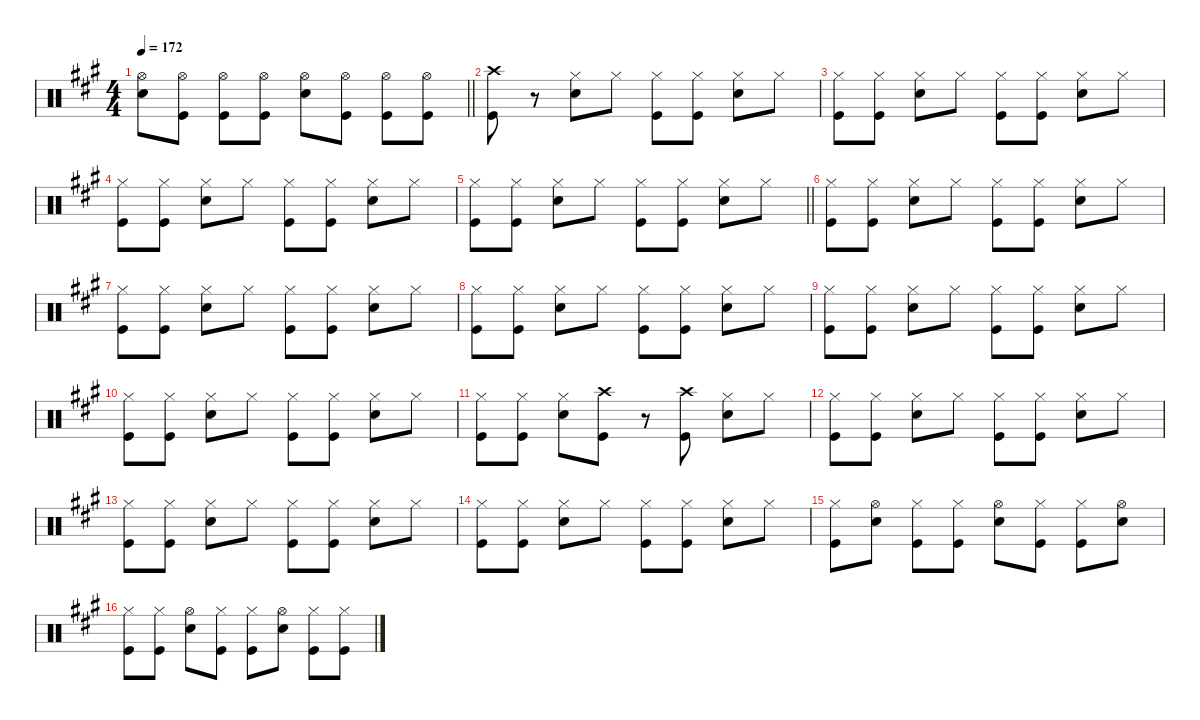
\defaultSystemsLayout 4
\hideDynamics
\bracketExtendMode nobrackets
\singleTrackTrackNamePolicy hidden
\multiTrackTrackNamePolicy hidden
\firstSystemTrackNameMode fullname
\firstSystemTrackNameOrientation horizontal
\otherSystemsTrackNameOrientation horizontal
\track ("Percussion" "drm.") {instrument percussion}
\staff {score}
\articulation defaults
\ts (4 4)
\tempo 172
\clef neutral
\barLineRight lightlight
\ks a
("Hi-Hat (open)"{acc forcenatural} "Snare (hit) 2"{acc forcenatural}).8{dy f beam Down} ("Hi-Hat (open)"{acc forcenatural} "Kick (hit)"{acc forcenatural}).8{beam Down} ("Hi-Hat (open)"{acc forcenatural} "Kick (hit)"{acc forcenatural}).8{beam Down} ("Hi-Hat (open)"{acc forcenatural} "Kick (hit)"{acc forcenatural}).8{beam Down} ("Hi-Hat (open)"{acc forcenatural} "Snare (hit) 2"{acc forcenatural}).8{beam Down} ("Hi-Hat (open)"{acc forcenatural} "Kick (hit)"{acc forcenatural}).8{beam Down} ("Hi-Hat (open)"{acc forcenatural} "Kick (hit)"{acc forcenatural}).8{beam Down} ("Hi-Hat (open)"{acc forcenatural} "Kick (hit)"{acc forcenatural}).8{beam Down} |
("Crash high (hit)"{acc forcenatural} "Kick (hit)"{acc forcenatural}).8{beam Down} r.8{beam Down} ("Hi-Hat (closed)"{acc forcenatural} "Snare (hit) 2"{acc forcenatural}).8{beam Down} "Hi-Hat (closed)"{acc forcenatural}.8{beam Down} ("Hi-Hat (closed)"{acc forcenatural} "Kick (hit)"{acc forcenatural}).8{beam Down} ("Hi-Hat (closed)"{acc forcenatural} "Kick (hit)"{acc forcenatural}).8{beam Down} ("Hi-Hat (closed)"{acc forcenatural} "Snare (hit) 2"{acc forcenatural}).8{beam Down} "Hi-Hat (closed)"{acc forcenatural}.8{beam Down} |
("Hi-Hat (closed)"{acc forcenatural} "Kick (hit)"{acc forcenatural}).8{beam Down} ("Hi-Hat (closed)"{acc forcenatural} "Kick (hit)"{acc forcenatural}).8{beam Down} ("Hi-Hat (closed)"{acc forcenatural} "Snare (hit) 2"{acc forcenatural}).8{beam Down} "Hi-Hat (closed)"{acc forcenatural}.8{beam Down} ("Hi-Hat (closed)"{acc forcenatural} "Kick (hit)"{acc forcenatural}).8{beam Down} ("Hi-Hat (closed)"{acc forcenatural} "Kick (hit)"{acc forcenatural}).8{beam Down} ("Hi-Hat (closed)"{acc forcenatural} "Snare (hit) 2"{acc forcenatural}).8{beam Down} "Hi-Hat (closed)"{acc forcenatural}.8{beam Down} |
("Hi-Hat (closed)"{acc forcenatural} "Kick (hit)"{acc forcenatural}).8{beam Down} ("Hi-Hat (closed)"{acc forcenatural} "Kick (hit)"{acc forcenatural}).8{beam Down} ("Hi-Hat (closed)"{acc forcenatural} "Snare (hit) 2"{acc forcenatural}).8{beam Down} "Hi-Hat (closed)"{acc forcenatural}.8{beam Down} ("Hi-Hat (closed)"{acc forcenatural} "Kick (hit)"{acc forcenatural}).8{beam Down} ("Hi-Hat (closed)"{acc forcenatural} "Kick (hit)"{acc forcenatural}).8{beam Down} ("Hi-Hat (closed)"{acc forcenatural} "Snare (hit) 2"{acc forcenatural}).8{beam Down} "Hi-Hat (closed)"{acc forcenatural}.8{beam Down} |
\barLineRight lightlight
("Hi-Hat (closed)"{acc forcenatural} "Kick (hit)"{acc forcenatural}).8{beam Down} ("Hi-Hat (closed)"{acc forcenatural} "Kick (hit)"{acc forcenatural}).8{beam Down} ("Hi-Hat (closed)"{acc forcenatural} "Snare (hit) 2"{acc forcenatural}).8{beam Down} "Hi-Hat (closed)"{acc forcenatural}.8{beam Down} ("Hi-Hat (closed)"{acc forcenatural} "Kick (hit)"{acc forcenatural}).8{beam Down} ("Hi-Hat (closed)"{acc forcenatural} "Kick (hit)"{acc forcenatural}).8{beam Down} ("Hi-Hat (closed)"{acc forcenatural} "Snare (hit) 2"{acc forcenatural}).8{beam Down} "Hi-Hat (closed)"{acc forcenatural}.8{beam Down} |
("Hi-Hat (closed)"{acc forcenatural} "Kick (hit)"{acc forcenatural}).8{beam Down} ("Hi-Hat (closed)"{acc forcenatural} "Kick (hit)"{acc forcenatural}).8{beam Down} ("Hi-Hat (closed)"{acc forcenatural} "Snare (hit) 2"{acc forcenatural}).8{beam Down} "Hi-Hat (closed)"{acc forcenatural}.8{beam Down} ("Hi-Hat (closed)"{acc forcenatural} "Kick (hit)"{acc forcenatural}).8{beam Down} ("Hi-Hat (closed)"{acc forcenatural} "Kick (hit)"{acc forcenatural}).8{beam Down} ("Hi-Hat (closed)"{acc forcenatural} "Snare (hit) 2"{acc forcenatural}).8{beam Down} "Hi-Hat (closed)"{acc forcenatural}.8{beam Down} |
("Hi-Hat (closed)"{acc forcenatural} "Kick (hit)"{acc forcenatural}).8{beam Down} ("Hi-Hat (closed)"{acc forcenatural} "Kick (hit)"{acc forcenatural}).8{beam Down} ("Hi-Hat (closed)"{acc forcenatural} "Snare (hit) 2"{acc forcenatural}).8{beam Down} "Hi-Hat (closed)"{acc forcenatural}.8{beam Down} ("Hi-Hat (closed)"{acc forcenatural} "Kick (hit)"{acc forcenatural}).8{beam Down} ("Hi-Hat (closed)"{acc forcenatural} "Kick (hit)"{acc forcenatural}).8{beam Down} ("Hi-Hat (closed)"{acc forcenatural} "Snare (hit) 2"{acc forcenatural}).8{beam Down} "Hi-Hat (closed)"{acc forcenatural}.8{beam Down} |
("Hi-Hat (closed)"{acc forcenatural} "Kick (hit)"{acc forcenatural}).8{beam Down} ("Hi-Hat (closed)"{acc forcenatural} "Kick (hit)"{acc forcenatural}).8{beam Down} ("Hi-Hat (closed)"{acc forcenatural} "Snare (hit) 2"{acc forcenatural}).8{beam Down} "Hi-Hat (closed)"{acc forcenatural}.8{beam Down} ("Hi-Hat (closed)"{acc forcenatural} "Kick (hit)"{acc forcenatural}).8{beam Down} ("Hi-Hat (closed)"{acc forcenatural} "Kick (hit)"{acc forcenatural}).8{beam Down} ("Hi-Hat (closed)"{acc forcenatural} "Snare (hit) 2"{acc forcenatural}).8{beam Down} "Hi-Hat (closed)"{acc forcenatural}.8{beam Down} |
("Hi-Hat (closed)"{acc forcenatural} "Kick (hit)"{acc forcenatural}).8{beam Down} ("Hi-Hat (closed)"{acc forcenatural} "Kick (hit)"{acc forcenatural}).8{beam Down} ("Hi-Hat (closed)"{acc forcenatural} "Snare (hit) 2"{acc forcenatural}).8{beam Down} "Hi-Hat (closed)"{acc forcenatural}.8{beam Down} ("Hi-Hat (closed)"{acc forcenatural} "Kick (hit)"{acc forcenatural}).8{beam Down} ("Hi-Hat (closed)"{acc forcenatural} "Kick (hit)"{acc forcenatural}).8{beam Down} ("Hi-Hat (closed)"{acc forcenatural} "Snare (hit) 2"{acc forcenatural}).8{beam Down} "Hi-Hat (closed)"{acc forcenatural}.8{beam Down} |
("Hi-Hat (closed)"{acc forcenatural} "Kick (hit)"{acc forcenatural}).8{beam Down} ("Hi-Hat (closed)"{acc forcenatural} "Kick (hit)"{acc forcenatural}).8{beam Down} ("Hi-Hat (closed)"{acc forcenatural} "Snare (hit) 2"{acc forcenatural}).8{beam Down} "Hi-Hat (closed)"{acc forcenatural}.8{beam Down} ("Hi-Hat (closed)"{acc forcenatural} "Kick (hit)"{acc forcenatural}).8{beam Down} ("Hi-Hat (closed)"{acc forcenatural} "Kick (hit)"{acc forcenatural}).8{beam Down} ("Hi-Hat (closed)"{acc forcenatural} "Snare (hit) 2"{acc forcenatural}).8{beam Down} "Hi-Hat (closed)"{acc forcenatural}.8{beam Down} |
("Hi-Hat (closed)"{acc forcenatural} "Kick (hit)"{acc forcenatural}).8{beam Down} ("Hi-Hat (closed)"{acc forcenatural} "Kick (hit)"{acc forcenatural}).8{beam Down} ("Hi-Hat (closed)"{acc forcenatural} "Snare (hit) 2"{acc forcenatural}).8{beam Down} ("Crash high (hit)"{acc forcenatural} "Kick (hit)"{acc forcenatural}).8{beam Down} r.8{beam Down} ("Crash high (hit)"{acc forcenatural} "Kick (hit)"{acc forcenatural}).8{beam Down} ("Hi-Hat (closed)"{acc forcenatural} "Snare (hit) 2"{acc forcenatural}).8{beam Down} "Hi-Hat (closed)"{acc forcenatural}.8{beam Down} |
("Hi-Hat (closed)"{acc forcenatural} "Kick (hit)"{acc forcenatural}).8{beam Down} ("Hi-Hat (closed)"{acc forcenatural} "Kick (hit)"{acc forcenatural}).8{beam Down} ("Hi-Hat (closed)"{acc forcenatural} "Snare (hit) 2"{acc forcenatural}).8{beam Down} "Hi-Hat (closed)"{acc forcenatural}.8{beam Down} ("Hi-Hat (closed)"{acc forcenatural} "Kick (hit)"{acc forcenatural}).8{beam Down} ("Hi-Hat (closed)"{acc forcenatural} "Kick (hit)"{acc forcenatural}).8{beam Down} ("Hi-Hat (closed)"{acc forcenatural} "Snare (hit) 2"{acc forcenatural}).8{beam Down} "Hi-Hat (closed)"{acc forcenatural}.8{beam Down} |
("Hi-Hat (closed)"{acc forcenatural} "Kick (hit)"{acc forcenatural}).8{beam Down} ("Hi-Hat (closed)"{acc forcenatural} "Kick (hit)"{acc forcenatural}).8{beam Down} ("Hi-Hat (closed)"{acc forcenatural} "Snare (hit) 2"{acc forcenatural}).8{beam Down} "Hi-Hat (closed)"{acc forcenatural}.8{beam Down} ("Hi-Hat (closed)"{acc forcenatural} "Kick (hit)"{acc forcenatural}).8{beam Down} ("Hi-Hat (closed)"{acc forcenatural} "Kick (hit)"{acc forcenatural}).8{beam Down} ("Hi-Hat (closed)"{acc forcenatural} "Snare (hit) 2"{acc forcenatural}).8{beam Down} "Hi-Hat (closed)"{acc forcenatural}.8{beam Down} |
("Hi-Hat (closed)"{acc forcenatural} "Kick (hit)"{acc forcenatural}).8{beam Down} ("Hi-Hat (closed)"{acc forcenatural} "Kick (hit)"{acc forcenatural}).8{beam Down} ("Hi-Hat (closed)"{acc forcenatural} "Snare (hit) 2"{acc forcenatural}).8{beam Down} "Hi-Hat (closed)"{acc forcenatural}.8{beam Down} ("Hi-Hat (closed)"{acc forcenatural} "Kick (hit)"{acc forcenatural}).8{beam Down} ("Hi-Hat (closed)"{acc forcenatural} "Kick (hit)"{acc forcenatural}).8{beam Down} ("Hi-Hat (closed)"{acc forcenatural} "Snare (hit) 2"{acc forcenatural}).8{beam Down} "Hi-Hat (closed)"{acc forcenatural}.8{beam Down} |
("Hi-Hat (closed)"{acc forcenatural} "Kick (hit)"{acc forcenatural}).8{beam Down} ("Hi-Hat (open)"{acc forcenatural} "Snare (hit) 2"{acc forcenatural}).8{beam Down} ("Hi-Hat (closed)"{acc forcenatural} "Kick (hit)"{acc forcenatural}).8{beam Down} ("Hi-Hat (closed)"{acc forcenatural} "Kick (hit)"{acc forcenatural}).8{beam Down} ("Hi-Hat (open)"{acc forcenatural} "Snare (hit) 2"{acc forcenatural}).8{beam Down} ("Hi-Hat (closed)"{acc forcenatural} "Kick (hit)"{acc forcenatural}).8{beam Down} ("Hi-Hat (closed)"{acc forcenatural} "Kick (hit)"{acc forcenatural}).8{beam Down} ("Hi-Hat (open)"{acc forcenatural} "Snare (hit) 2"{acc forcenatural}).8{beam Down} |
("Hi-Hat (closed)"{acc forcenatural} "Kick (hit)"{acc forcenatural}).8{beam Down} ("Hi-Hat (closed)"{acc forcenatural} "Kick (hit)"{acc forcenatural}).8{beam Down} ("Hi-Hat (open)"{acc forcenatural} "Snare (hit) 2"{acc forcenatural}).8{beam Down} ("Hi-Hat (closed)"{acc forcenatural} "Kick (hit)"{acc forcenatural}).8{beam Down} ("Hi-Hat (closed)"{acc forcenatural} "Kick (hit)"{acc forcenatural}).8{beam Down} ("Hi-Hat (open)"{acc forcenatural} "Snare (hit) 2"{acc forcenatural}).8{beam Down} ("Hi-Hat (closed)"{acc forcenatural} "Kick (hit)"{acc forcenatural}).8{beam Down} ("Hi-Hat (closed)"{acc forcenatural} "Kick (hit)"{acc forcenatural}).8{beam Down}
